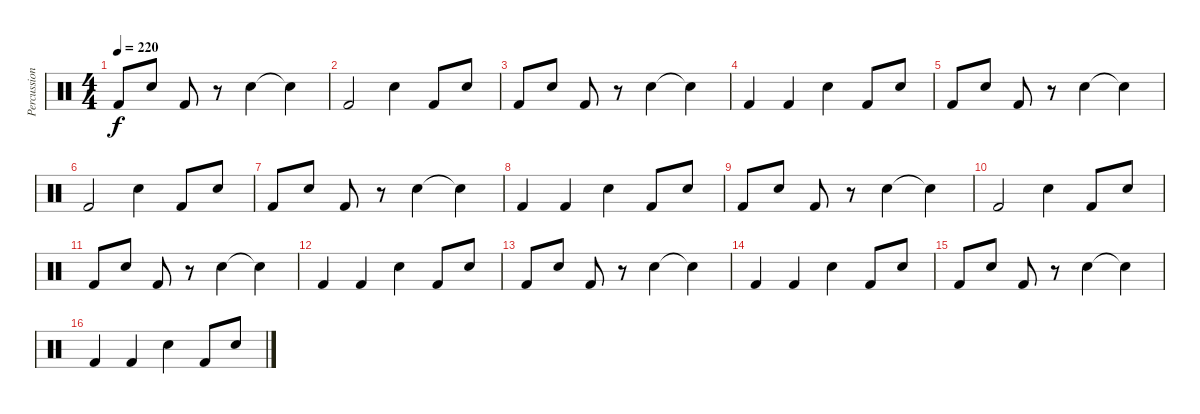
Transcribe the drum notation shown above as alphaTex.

\track ("Percussions" "Percussion") {instrument percussion}
\staff {score}
\articulation defaults
\ts (4 4)
\tempo 220
\clef neutral
\ks c "Kick (hit) 2".8{dy f} "Electric Snare (hit)".8 "Kick (hit) 2".8
r.8 "Electric Snare (hit)".4 "Electric Snare (hit)"{t}.4 |
"Kick (hit) 2".2 "Electric Snare (hit)".4 "Kick (hit) 2".8 "Electric Snare (hit)".8 |
"Kick (hit) 2".8 "Electric Snare (hit)".8 "Kick (hit) 2".8 r.8 "Electric Snare (hit)".4 "Snare (hit)"{t}.4 |
"Kick (hit) 2".4 "Kick (hit) 2".4 "Electric Snare (hit)".4 "Kick (hit) 2".8 "Electric Snare (hit)".8 |
"Kick (hit) 2".8 "Electric Snare (hit)".8 "Kick (hit) 2".8 r.8 "Electric Snare (hit)".4 "Electric Snare (hit)"{t}.4 |
"Kick (hit) 2".2 "Electric Snare (hit)".4 "Kick (hit) 2".8 "Electric Snare (hit)".8 |
"Kick (hit) 2".8 "Electric Snare (hit)".8 "Kick (hit) 2".8 r.8 "Electric Snare (hit)".4 "Snare (hit)"{t}.4 |
"Kick (hit) 2".4 "Kick (hit) 2".4 "Electric Snare (hit)".4 "Kick (hit) 2".8 "Electric Snare (hit)".8 |
"Kick (hit) 2".8 "Electric Snare (hit)".8 "Kick (hit) 2".8 r.8 "Electric Snare (hit)".4 "Electric Snare (hit)"{t}.4 |
"Kick (hit) 2".2 "Electric Snare (hit)".4 "Kick (hit) 2".8 "Electric Snare (hit)".8 |
"Kick (hit) 2".8 "Electric Snare (hit)".8 "Kick (hit) 2".8 r.8 "Electric Snare (hit)".4 "Snare (hit)"{t}.4 |
"Kick (hit) 2".4 "Kick (hit) 2".4 "Electric Snare (hit)".4 "Kick (hit) 2".8 "Electric Snare (hit)".8 |
"Kick (hit) 2".8 "Electric Snare (hit)".8 "Kick (hit) 2".8 r.8 "Electric Snare (hit)".4 "Electric Snare (hit)"{t}.4 |
"Kick (hit) 2".4 "Kick (hit) 2".4 "Electric Snare (hit)".4 "Kick (hit) 2".8 "Electric Snare (hit)".8 |
"Kick (hit) 2".8 "Electric Snare (hit)".8 "Kick (hit) 2".8 r.8 "Electric Snare (hit)".4 "Electric Snare (hit)"{t}.4 |
"Kick (hit) 2".4 "Kick (hit) 2".4 "Electric Snare (hit)".4 "Kick (hit) 2".8 "Electric Snare (hit)".8
